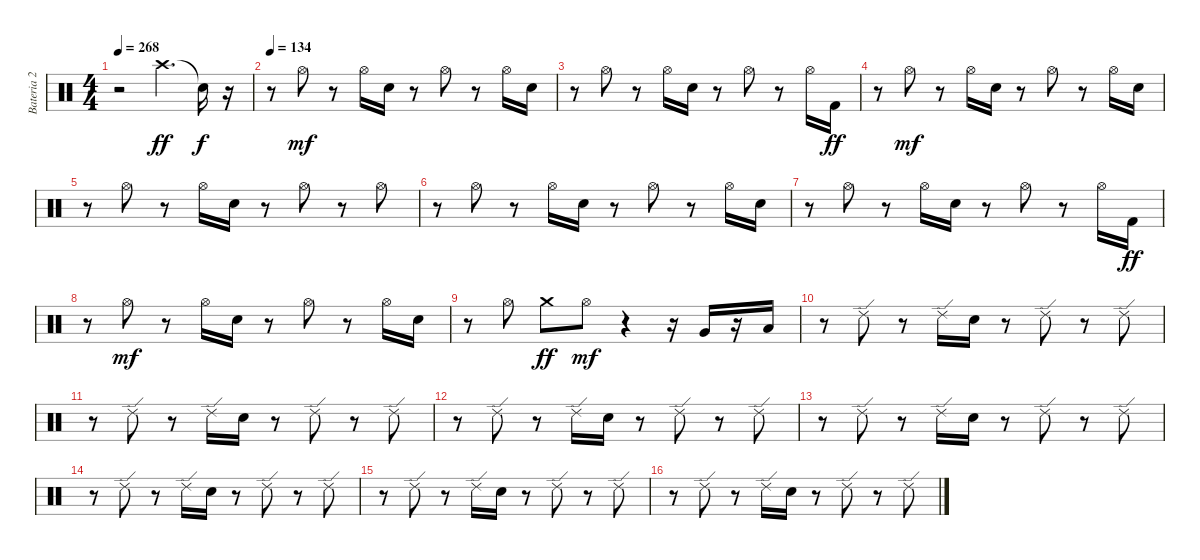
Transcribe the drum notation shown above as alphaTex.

\track ("Bateria 2" "Bateria 2") {instrument percussion}
\staff {score}
\articulation defaults
\ts (4 4)
\tempo 268
\clef neutral
\ks c
r.2{dy f} "Crash high (hit)".4{d dy ff} "Snare (hit)"{t}.16{dy f} r.16 |
\tempo 134
r.8 "Hi-Hat (open)".8{dy mf} r.8 "Hi-Hat (open)".16 "Electric Snare (hit)".16 r.8 "Hi-Hat (open)".8 r.8 "Hi-Hat (open)".16 "Electric Snare (hit)".16 |
r.8 "Hi-Hat (open)".8 r.8 "Hi-Hat (open)".16 "Electric Snare (hit)".16 r.8 "Hi-Hat (open)".8 r.8 "Hi-Hat (open)".16 "Kick (hit) 2".16{dy ff} |
r.8 "Hi-Hat (open)".8{dy mf} r.8 "Hi-Hat (open)".16 "Electric Snare (hit)".16 r.8 "Hi-Hat (open)".8 r.8 "Hi-Hat (open)".16 "Electric Snare (hit)".16 |
r.8 "Hi-Hat (open)".8 r.8 "Hi-Hat (open)".16 "Electric Snare (hit)".16 r.8 "Hi-Hat (open)".8 r.8 "Hi-Hat (open)".8 |
r.8 "Hi-Hat (open)".8 r.8 "Hi-Hat (open)".16 "Electric Snare (hit)".16 r.8 "Hi-Hat (open)".8 r.8 "Hi-Hat (open)".16 "Electric Snare (hit)".16 |
r.8 "Hi-Hat (open)".8 r.8 "Hi-Hat (open)".16 "Electric Snare (hit)".16 r.8 "Hi-Hat (open)".8 r.8 "Hi-Hat (open)".16 "Kick (hit) 2".16{dy ff} |
r.8 "Hi-Hat (open)".8{dy mf} r.8 "Hi-Hat (open)".16 "Electric Snare (hit)".16 r.8 "Hi-Hat (open)".8 r.8 "Hi-Hat (open)".16 "Electric Snare (hit)".16 |
r.8 "Hi-Hat (open)".8 "Crash medium (hit)".8{dy ff} "Hi-Hat (open)".8{dy mf} r.4 r.16 "Very Low Tom (hit)".16 r.16 "Low Floor Tom (hit)".16 |
r.8 "Ride (edge) 2".8 r.8 "Ride (edge) 2".16 "Electric Snare (hit)".16 r.8 "Ride (edge) 2".8 r.8 "Ride (edge) 2".8 |
r.8 "Ride (edge) 2".8 r.8 "Ride (edge) 2".16 "Electric Snare (hit)".16 r.8 "Ride (edge) 2".8 r.8 "Ride (edge) 2".8 |
r.8 "Ride (edge) 2".8 r.8 "Ride (edge) 2".16 "Electric Snare (hit)".16 r.8 "Ride (edge) 2".8 r.8 "Ride (edge) 2".8 |
r.8 "Ride (edge) 2".8 r.8 "Ride (edge) 2".16 "Electric Snare (hit)".16 r.8 "Ride (edge) 2".8 r.8 "Ride (edge) 2".8 |
r.8 "Ride (edge) 2".8 r.8 "Ride (edge) 2".16 "Electric Snare (hit)".16 r.8 "Ride (edge) 2".8 r.8 "Ride (edge) 2".8 |
r.8 "Ride (edge) 2".8 r.8 "Ride (edge) 2".16 "Electric Snare (hit)".16 r.8 "Ride (edge) 2".8 r.8 "Ride (edge) 2".8 |
r.8 "Ride (edge) 2".8 r.8 "Ride (edge) 2".16 "Electric Snare (hit)".16 r.8 "Ride (edge) 2".8 r.8 "Ride (edge) 2".8
